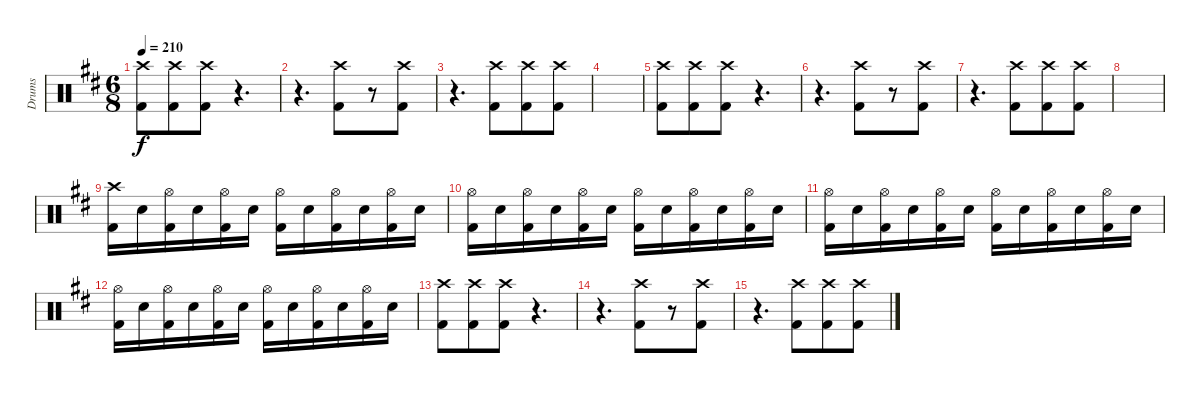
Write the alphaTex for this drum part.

\track ("Drums" "Drums") {instrument percussion}
\staff {score}
\articulation defaults
\ts (6 8)
\tempo 210
\clef neutral
\ks bminor
("Kick (hit) 2" "Crash high (hit)").8{dy f} ("Kick (hit) 2" "Crash high (hit)").8 ("Kick (hit) 2" "Crash high (hit)").8 r.4{d} |
r.4{d} ("Kick (hit) 2" "Crash high (hit)").8 r.8 ("Kick (hit) 2" "Crash high (hit)").8 |
r.4{d} ("Kick (hit) 2" "Crash high (hit)").8 ("Kick (hit) 2" "Crash high (hit)").8 ("Kick (hit) 2" "Crash high (hit)").8 |
|
("Kick (hit) 2" "Crash high (hit)").8 ("Kick (hit) 2" "Crash high (hit)").8 ("Kick (hit) 2" "Crash high (hit)").8 r.4{d} |
r.4{d} ("Kick (hit) 2" "Crash high (hit)").8 r.8 ("Kick (hit) 2" "Crash high (hit)").8 |
r.4{d} ("Kick (hit) 2" "Crash high (hit)").8 ("Kick (hit) 2" "Crash high (hit)").8 ("Kick (hit) 2" "Crash high (hit)").8 |
|
("Kick (hit) 2" "Crash high (hit)").16 "Electric Snare (hit)".16 ("Kick (hit) 2" "Hi-Hat (open)").16 "Electric Snare (hit)".16 ("Kick (hit) 2" "Hi-Hat (open)").16 "Electric Snare (hit)".16 ("Kick (hit) 2" "Hi-Hat (open)").16 "Electric Snare (hit)".16 ("Kick (hit) 2" "Hi-Hat (open)").16 "Electric Snare (hit)".16 ("Kick (hit) 2" "Hi-Hat (open)").16 "Electric Snare (hit)".16 |
("Kick (hit) 2" "Hi-Hat (open)").16 "Electric Snare (hit)".16 ("Kick (hit) 2" "Hi-Hat (open)").16 "Electric Snare (hit)".16 ("Kick (hit) 2" "Hi-Hat (open)").16 "Electric Snare (hit)".16 ("Kick (hit) 2" "Hi-Hat (open)").16 "Electric Snare (hit)".16 ("Kick (hit) 2" "Hi-Hat (open)").16 "Electric Snare (hit)".16 ("Kick (hit) 2" "Hi-Hat (open)").16 "Electric Snare (hit)".16 |
("Kick (hit) 2" "Hi-Hat (open)").16 "Electric Snare (hit)".16 ("Kick (hit) 2" "Hi-Hat (open)").16 "Electric Snare (hit)".16 ("Kick (hit) 2" "Hi-Hat (open)").16 "Electric Snare (hit)".16 ("Kick (hit) 2" "Hi-Hat (open)").16 "Electric Snare (hit)".16 ("Kick (hit) 2" "Hi-Hat (open)").16 "Electric Snare (hit)".16 ("Kick (hit) 2" "Hi-Hat (open)").16 "Electric Snare (hit)".16 |
("Kick (hit) 2" "Hi-Hat (open)").16 "Electric Snare (hit)".16 ("Kick (hit) 2" "Hi-Hat (open)").16 "Electric Snare (hit)".16 ("Kick (hit) 2" "Hi-Hat (open)").16 "Electric Snare (hit)".16 ("Kick (hit) 2" "Hi-Hat (open)").16 "Electric Snare (hit)".16 ("Kick (hit) 2" "Hi-Hat (open)").16 "Electric Snare (hit)".16 ("Kick (hit) 2" "Hi-Hat (open)").16 "Electric Snare (hit)".16 |
("Kick (hit) 2" "Crash high (hit)").8 ("Kick (hit) 2" "Crash high (hit)").8 ("Kick (hit) 2" "Crash high (hit)").8 r.4{d} |
r.4{d} ("Kick (hit) 2" "Crash high (hit)").8 r.8 ("Kick (hit) 2" "Crash high (hit)").8 |
r.4{d} ("Kick (hit) 2" "Crash high (hit)").8 ("Kick (hit) 2" "Crash high (hit)").8 ("Kick (hit) 2" "Crash high (hit)").8
